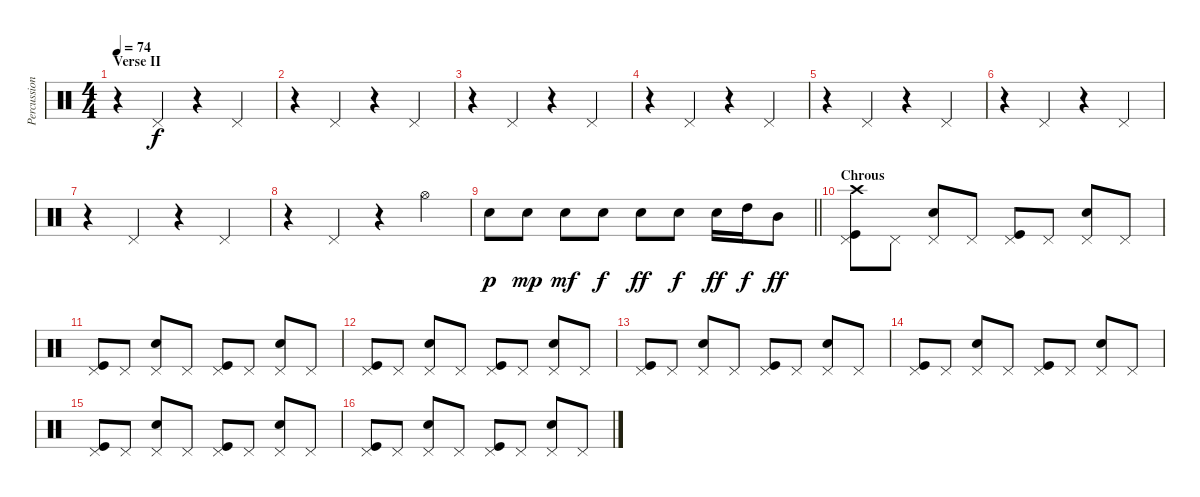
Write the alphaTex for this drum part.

\track ("Percussion" "Percussion") {instrument percussion}
\staff {score}
\articulation defaults
\ts (4 4)
\section ("" "Verse II")
\tempo 74
\clef neutral
\ks c
r.4{dy f} "Pedal Hi-Hat (hit)".4 r.4 "Pedal Hi-Hat (hit)".4 |
r.4 "Pedal Hi-Hat (hit)".4 r.4 "Pedal Hi-Hat (hit)".4 |
r.4 "Pedal Hi-Hat (hit)".4 r.4 "Pedal Hi-Hat (hit)".4 |
r.4 "Pedal Hi-Hat (hit)".4 r.4 "Pedal Hi-Hat (hit)".4 |
r.4 "Pedal Hi-Hat (hit)".4 r.4 "Pedal Hi-Hat (hit)".4 |
r.4 "Pedal Hi-Hat (hit)".4 r.4 "Pedal Hi-Hat (hit)".4 |
r.4 "Pedal Hi-Hat (hit)".4 r.4 "Pedal Hi-Hat (hit)".4 |
r.4 "Pedal Hi-Hat (hit)".4 r.4 "Hi-Hat (open)".4 |
\barLineRight lightlight "Snare (hit) 2".8{dy p} "Snare (hit) 2".8{dy mp} "Snare (hit) 2".8{dy mf} "Snare (hit) 2".8{dy f} "Snare (hit) 2".8{dy ff} "Snare (hit) 2".8{dy f} "Electric Snare (hit)".16{dy ff} "High Tom (hit)".16{dy f} "Mid Tom (hit)".8{dy ff}
|
\section ("" "Chrous")
("Pedal Hi-Hat (hit)" "Kick (hit)" "Crash high (hit)").8 "Pedal Hi-Hat (hit)".8 ("Pedal Hi-Hat (hit)" "Snare (hit) 2").8 "Pedal Hi-Hat (hit)".8 ("Pedal Hi-Hat (hit)" "Kick (hit)").8 "Pedal Hi-Hat (hit)".8 ("Pedal Hi-Hat (hit)" "Snare (hit) 2").8 "Pedal Hi-Hat (hit)".8 |
("Pedal Hi-Hat (hit)" "Kick (hit)").8 "Pedal Hi-Hat (hit)".8 ("Pedal Hi-Hat (hit)" "Snare (hit) 2").8 "Pedal Hi-Hat (hit)".8 ("Pedal Hi-Hat (hit)" "Kick (hit)").8 "Pedal Hi-Hat (hit)".8 ("Pedal Hi-Hat (hit)" "Snare (hit) 2").8 "Pedal Hi-Hat (hit)".8 |
("Pedal Hi-Hat (hit)" "Kick (hit)").8 "Pedal Hi-Hat (hit)".8 ("Pedal Hi-Hat (hit)" "Snare (hit) 2").8 "Pedal Hi-Hat (hit)".8 ("Pedal Hi-Hat (hit)" "Kick (hit)").8 "Pedal Hi-Hat (hit)".8 ("Pedal Hi-Hat (hit)" "Snare (hit) 2").8 "Pedal Hi-Hat (hit)".8 |
("Pedal Hi-Hat (hit)" "Kick (hit)").8 "Pedal Hi-Hat (hit)".8 ("Pedal Hi-Hat (hit)" "Snare (hit) 2").8 "Pedal Hi-Hat (hit)".8 ("Pedal Hi-Hat (hit)" "Kick (hit)").8 "Pedal Hi-Hat (hit)".8 ("Pedal Hi-Hat (hit)" "Snare (hit) 2").8 "Pedal Hi-Hat (hit)".8 |
("Pedal Hi-Hat (hit)" "Kick (hit)").8 "Pedal Hi-Hat (hit)".8 ("Pedal Hi-Hat (hit)" "Snare (hit) 2").8 "Pedal Hi-Hat (hit)".8 ("Pedal Hi-Hat (hit)" "Kick (hit)").8 "Pedal Hi-Hat (hit)".8 ("Pedal Hi-Hat (hit)" "Snare (hit) 2").8 "Pedal Hi-Hat (hit)".8 |
("Pedal Hi-Hat (hit)" "Kick (hit)").8 "Pedal Hi-Hat (hit)".8 ("Pedal Hi-Hat (hit)" "Snare (hit) 2").8 "Pedal Hi-Hat (hit)".8 ("Pedal Hi-Hat (hit)" "Kick (hit)").8 "Pedal Hi-Hat (hit)".8 ("Pedal Hi-Hat (hit)" "Snare (hit) 2").8 "Pedal Hi-Hat (hit)".8 |
("Pedal Hi-Hat (hit)" "Kick (hit)").8 "Pedal Hi-Hat (hit)".8 ("Pedal Hi-Hat (hit)" "Snare (hit) 2").8 "Pedal Hi-Hat (hit)".8 ("Pedal Hi-Hat (hit)" "Kick (hit)").8 "Pedal Hi-Hat (hit)".8 ("Pedal Hi-Hat (hit)" "Snare (hit) 2").8 "Pedal Hi-Hat (hit)".8
